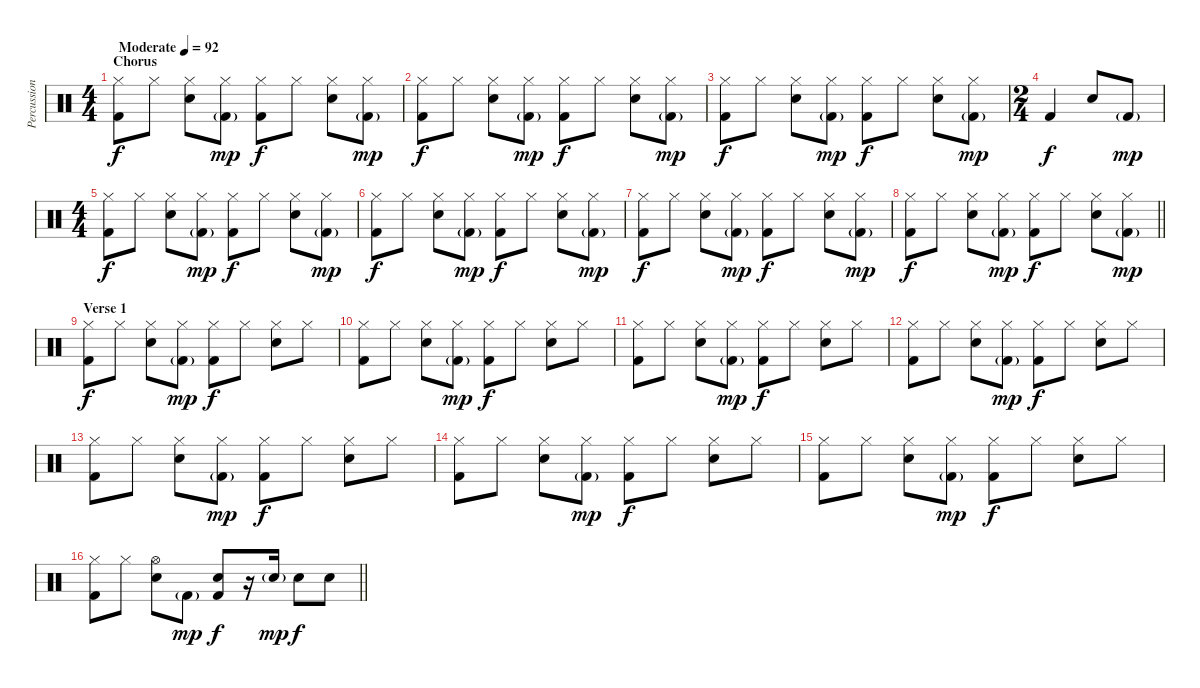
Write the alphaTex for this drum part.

\track ("Percussion" "Percussion") {instrument percussion}
\staff {score}
\articulation defaults
\ts (4 4)
\section ("" "Chorus")
\tempo (92 "Moderate")
\clef neutral
\ks c
("Hi-Hat (closed)" "Kick (hit) 2").8{dy f} "Hi-Hat (closed)".8 ("Hi-Hat (closed)" "Snare (hit) 2").8 ("Hi-Hat (closed)" "Kick (hit) 2"{g}).8{dy mp} ("Hi-Hat (closed)" "Kick (hit) 2").8{dy f} "Hi-Hat (closed)".8 ("Hi-Hat (closed)" "Snare (hit) 2").8 ("Hi-Hat (closed)" "Kick (hit) 2"{g}).8{dy mp} |
("Hi-Hat (closed)" "Kick (hit) 2").8{dy f} "Hi-Hat (closed)".8 ("Hi-Hat (closed)" "Snare (hit) 2").8 ("Hi-Hat (closed)" "Kick (hit) 2"{g}).8{dy mp} ("Hi-Hat (closed)" "Kick (hit) 2").8{dy f} "Hi-Hat (closed)".8 ("Hi-Hat (closed)" "Snare (hit) 2").8 ("Hi-Hat (closed)" "Kick (hit) 2"{g}).8{dy mp} |
("Hi-Hat (closed)" "Kick (hit) 2").8{dy f} "Hi-Hat (closed)".8 ("Hi-Hat (closed)" "Snare (hit) 2").8 ("Hi-Hat (closed)" "Kick (hit) 2"{g}).8{dy mp} ("Hi-Hat (closed)" "Kick (hit) 2").8{dy f} "Hi-Hat (closed)".8 ("Hi-Hat (closed)" "Snare (hit) 2").8 ("Hi-Hat (closed)" "Kick (hit) 2"{g}).8{dy mp} |
\ts (2 4)
"Kick (hit) 2".4{dy f} "Snare (hit) 2".8 "Kick (hit) 2"{g}.8{dy mp} |
\ts (4 4)
("Hi-Hat (closed)" "Kick (hit) 2").8{dy f} "Hi-Hat (closed)".8 ("Hi-Hat (closed)" "Snare (hit) 2").8 ("Hi-Hat (closed)" "Kick (hit) 2"{g}).8{dy mp} ("Hi-Hat (closed)" "Kick (hit) 2").8{dy f} "Hi-Hat (closed)".8 ("Hi-Hat (closed)" "Snare (hit) 2").8 ("Hi-Hat (closed)" "Kick (hit) 2"{g}).8{dy mp} |
("Hi-Hat (closed)" "Kick (hit) 2").8{dy f} "Hi-Hat (closed)".8 ("Hi-Hat (closed)" "Snare (hit) 2").8 ("Hi-Hat (closed)" "Kick (hit) 2"{g}).8{dy mp} ("Hi-Hat (closed)" "Kick (hit) 2").8{dy f} "Hi-Hat (closed)".8 ("Hi-Hat (closed)" "Snare (hit) 2").8 ("Hi-Hat (closed)" "Kick (hit) 2"{g}).8{dy mp} |
("Hi-Hat (closed)" "Kick (hit) 2").8{dy f} "Hi-Hat (closed)".8 ("Hi-Hat (closed)" "Snare (hit) 2").8 ("Hi-Hat (closed)" "Kick (hit) 2"{g}).8{dy mp} ("Hi-Hat (closed)" "Kick (hit) 2").8{dy f} "Hi-Hat (closed)".8 ("Hi-Hat (closed)" "Snare (hit) 2").8 ("Hi-Hat (closed)" "Kick (hit) 2"{g}).8{dy mp} |
\barLineRight lightlight
("Hi-Hat (closed)" "Kick (hit) 2").8{dy f} "Hi-Hat (closed)".8 ("Hi-Hat (closed)" "Snare (hit) 2").8 ("Hi-Hat (closed)" "Kick (hit) 2"{g}).8{dy mp} ("Hi-Hat (closed)" "Kick (hit) 2").8{dy f} "Hi-Hat (closed)".8 ("Hi-Hat (closed)" "Snare (hit) 2").8 ("Hi-Hat (closed)" "Kick (hit) 2"{g}).8{dy mp} |
\section ("" "Verse 1")
("Hi-Hat (closed)" "Kick (hit) 2").8{dy f} "Hi-Hat (closed)".8 ("Hi-Hat (closed)" "Snare (hit) 2").8 ("Hi-Hat (closed)" "Kick (hit) 2"{g}).8{dy mp} ("Hi-Hat (closed)" "Kick (hit) 2").8{dy f} "Hi-Hat (closed)".8 ("Hi-Hat (closed)" "Snare (hit) 2").8 "Hi-Hat (closed)".8 |
("Hi-Hat (closed)" "Kick (hit) 2").8 "Hi-Hat (closed)".8 ("Hi-Hat (closed)" "Snare (hit) 2").8 ("Hi-Hat (closed)" "Kick (hit) 2"{g}).8{dy mp} ("Hi-Hat (closed)" "Kick (hit) 2").8{dy f} "Hi-Hat (closed)".8 ("Hi-Hat (closed)" "Snare (hit) 2").8 "Hi-Hat (closed)".8 |
("Hi-Hat (closed)" "Kick (hit) 2").8 "Hi-Hat (closed)".8 ("Hi-Hat (closed)" "Snare (hit) 2").8 ("Hi-Hat (closed)" "Kick (hit) 2"{g}).8{dy mp} ("Hi-Hat (closed)" "Kick (hit) 2").8{dy f} "Hi-Hat (closed)".8 ("Hi-Hat (closed)" "Snare (hit) 2").8 "Hi-Hat (closed)".8 |
("Hi-Hat (closed)" "Kick (hit) 2").8 "Hi-Hat (closed)".8 ("Hi-Hat (closed)" "Snare (hit) 2").8 ("Hi-Hat (closed)" "Kick (hit) 2"{g}).8{dy mp} ("Hi-Hat (closed)" "Kick (hit) 2").8{dy f} "Hi-Hat (closed)".8 ("Hi-Hat (closed)" "Snare (hit) 2").8 "Hi-Hat (closed)".8 |
("Hi-Hat (closed)" "Kick (hit) 2").8 "Hi-Hat (closed)".8 ("Hi-Hat (closed)" "Snare (hit) 2").8 ("Hi-Hat (closed)" "Kick (hit) 2"{g}).8{dy mp} ("Hi-Hat (closed)" "Kick (hit) 2").8{dy f} "Hi-Hat (closed)".8 ("Hi-Hat (closed)" "Snare (hit) 2").8 "Hi-Hat (closed)".8 |
("Hi-Hat (closed)" "Kick (hit) 2").8 "Hi-Hat (closed)".8 ("Hi-Hat (closed)" "Snare (hit) 2").8 ("Hi-Hat (closed)" "Kick (hit) 2"{g}).8{dy mp} ("Hi-Hat (closed)" "Kick (hit) 2").8{dy f} "Hi-Hat (closed)".8 ("Hi-Hat (closed)" "Snare (hit) 2").8 "Hi-Hat (closed)".8 |
("Hi-Hat (closed)" "Kick (hit) 2").8 "Hi-Hat (closed)".8 ("Hi-Hat (closed)" "Snare (hit) 2").8 ("Hi-Hat (closed)" "Kick (hit) 2"{g}).8{dy mp} ("Hi-Hat (closed)" "Kick (hit) 2").8{dy f} "Hi-Hat (closed)".8 ("Hi-Hat (closed)" "Snare (hit) 2").8 "Hi-Hat (closed)".8 |
\barLineRight lightlight
("Hi-Hat (closed)" "Kick (hit) 2").8 "Hi-Hat (closed)".8 ("Hi-Hat (open)" "Snare (hit) 2").8 "Kick (hit) 2"{g}.8{dy mp} ("Snare (hit) 2" "Kick (hit) 2").8{dy f} r.16 "Snare (hit) 2"{g}.16{dy mp} "Snare (hit) 2".8{dy f} "Snare (hit) 2".8
